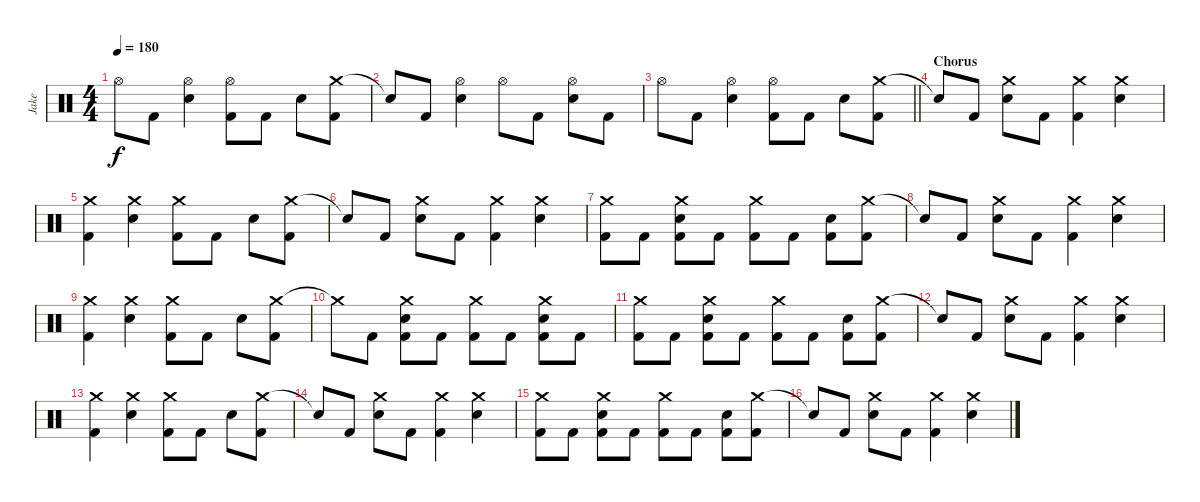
\track ("Jake" "Jake") {instrument percussion}
\staff {score}
\articulation defaults
\ts (4 4)
\tempo 180
\clef neutral
\ks c "Hi-Hat (open)".8{dy f} "Kick (hit) 2".8
("Hi-Hat (open)" "Electric Snare (hit)").4 ("Hi-Hat (open)" "Kick (hit) 2").8 "Kick (hit) 2".8 "Electric Snare (hit)".8 ("Crash medium (hit)" "Kick (hit) 2").8 |
"Snare (hit)"{t}.8 "Kick (hit) 2".8 ("Hi-Hat (open)" "Electric Snare (hit)").4 "Hi-Hat (open)".8 "Kick (hit) 2".8 ("Hi-Hat (open)" "Electric Snare (hit)").8 "Kick (hit) 2".8 |
\barLineRight lightlight "Hi-Hat (open)".8 "Kick (hit) 2".8
("Hi-Hat (open)" "Electric Snare (hit)").4 ("Hi-Hat (open)" "Kick (hit) 2").8 "Kick (hit) 2".8 "Electric Snare (hit)".8 ("Crash medium (hit)" "Kick (hit) 2").8 |
\section ("" "Chorus")
"Snare (hit)"{t}.8 "Kick (hit) 2".8 ("Crash medium (hit)" "Electric Snare (hit)").8 "Kick (hit) 2".8 ("Crash medium (hit)" "Kick (hit) 2").4 ("Crash medium (hit)" "Electric Snare (hit)").4 |
("Crash medium (hit)" "Kick (hit) 2").4 ("Crash medium (hit)" "Electric Snare (hit)").4 ("Crash medium (hit)" "Kick (hit) 2").8 "Kick (hit) 2".8 "Electric Snare (hit)".8 ("Crash medium (hit)" "Kick (hit) 2").8 |
"Snare (hit)"{t}.8 "Kick (hit) 2".8 ("Crash medium (hit)" "Electric Snare (hit)").8 "Kick (hit) 2".8 ("Crash medium (hit)" "Kick (hit) 2").4 ("Crash medium (hit)" "Electric Snare (hit)").4 |
("Crash medium (hit)" "Kick (hit) 2").8 "Kick (hit) 2".8 ("Crash medium (hit)" "Electric Snare (hit)" "Kick (hit) 2").8 "Kick (hit) 2".8 ("Crash medium (hit)" "Kick (hit) 2").8 "Kick (hit) 2".8 ("Electric Snare (hit)" "Kick (hit) 2").8 ("Crash medium (hit)" "Kick (hit) 2").8 |
"Snare (hit)"{t}.8 "Kick (hit) 2".8 ("Crash medium (hit)" "Electric Snare (hit)").8 "Kick (hit) 2".8 ("Crash medium (hit)" "Kick (hit) 2").4 ("Crash medium (hit)" "Electric Snare (hit)").4 |
("Crash medium (hit)" "Kick (hit) 2").4 ("Crash medium (hit)" "Electric Snare (hit)").4 ("Crash medium (hit)" "Kick (hit) 2").8 "Kick (hit) 2".8 "Electric Snare (hit)".8 ("Crash medium (hit)" "Kick (hit) 2").8 |
"Crash medium (hit)"{t}.8 "Kick (hit) 2".8 ("Crash medium (hit)" "Electric Snare (hit)" "Kick (hit) 2").8 "Kick (hit) 2".8 ("Crash medium (hit)" "Kick (hit) 2").8 "Kick (hit) 2".8 ("Crash medium (hit)" "Electric Snare (hit)" "Kick (hit) 2").8 "Kick (hit) 2".8 |
("Crash medium (hit)" "Kick (hit) 2").8 "Kick (hit) 2".8 ("Crash medium (hit)" "Electric Snare (hit)" "Kick (hit) 2").8 "Kick (hit) 2".8 ("Crash medium (hit)" "Kick (hit) 2").8 "Kick (hit) 2".8 ("Electric Snare (hit)" "Kick (hit) 2").8 ("Crash medium (hit)" "Kick (hit) 2").8 |
"Snare (hit)"{t}.8 "Kick (hit) 2".8 ("Crash medium (hit)" "Electric Snare (hit)").8 "Kick (hit) 2".8 ("Crash medium (hit)" "Kick (hit) 2").4 ("Crash medium (hit)" "Electric Snare (hit)").4 |
("Crash medium (hit)" "Kick (hit) 2").4 ("Crash medium (hit)" "Electric Snare (hit)").4 ("Crash medium (hit)" "Kick (hit) 2").8 "Kick (hit) 2".8 "Electric Snare (hit)".8 ("Crash medium (hit)" "Kick (hit) 2").8 |
"Snare (hit)"{t}.8 "Kick (hit) 2".8 ("Crash medium (hit)" "Electric Snare (hit)").8 "Kick (hit) 2".8 ("Crash medium (hit)" "Kick (hit) 2").4 ("Crash medium (hit)" "Electric Snare (hit)").4 |
("Crash medium (hit)" "Kick (hit) 2").8 "Kick (hit) 2".8 ("Crash medium (hit)" "Electric Snare (hit)" "Kick (hit) 2").8 "Kick (hit) 2".8 ("Crash medium (hit)" "Kick (hit) 2").8 "Kick (hit) 2".8 ("Electric Snare (hit)" "Kick (hit) 2").8 ("Crash medium (hit)" "Kick (hit) 2").8 |
"Snare (hit)"{t}.8 "Kick (hit) 2".8 ("Crash medium (hit)" "Electric Snare (hit)").8 "Kick (hit) 2".8 ("Crash medium (hit)" "Kick (hit) 2").4 ("Crash medium (hit)" "Electric Snare (hit)").4
